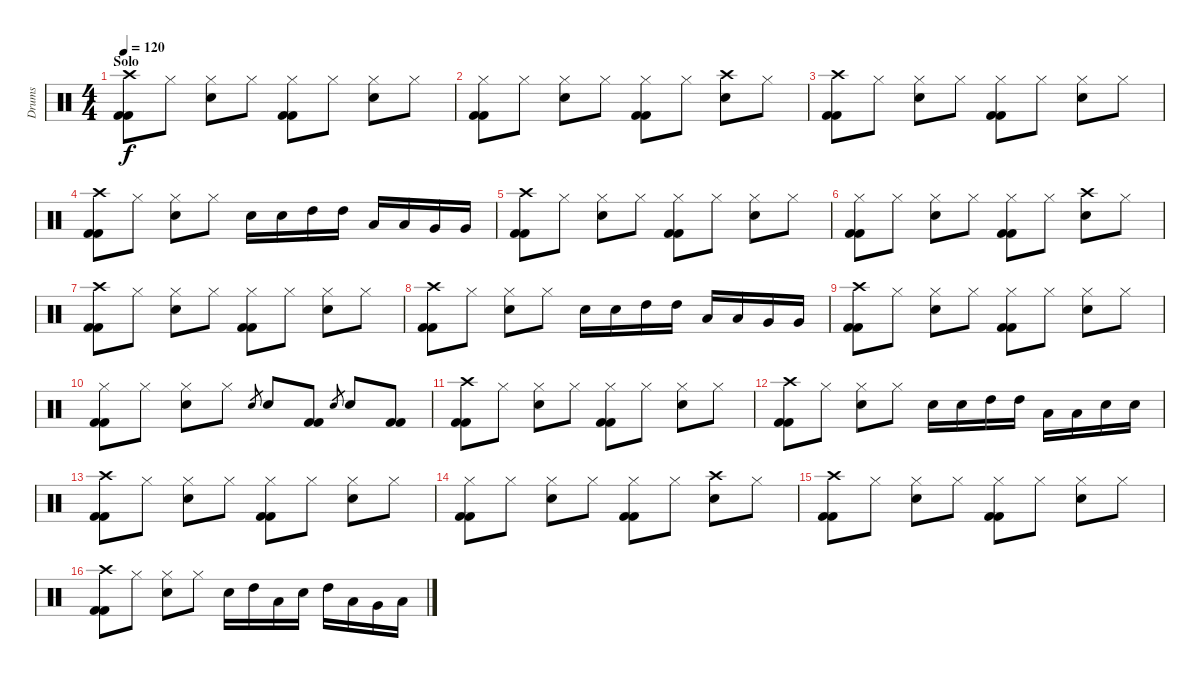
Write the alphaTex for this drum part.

\track ("Drums" "Drums") {instrument percussion}
\staff {score}
\articulation defaults
\ts (4 4)
\section ("" "Solo")
\tempo 120
\clef neutral
\ks c
("Crash high (hit)" "Kick (hit) 2" "Kick (hit) 2").8{dy f} "Hi-Hat (closed)".8 ("Electric Snare (hit)" "Hi-Hat (closed)").8 "Hi-Hat (closed)".8 ("Kick (hit) 2" "Kick (hit) 2" "Hi-Hat (closed)").8 "Hi-Hat (closed)".8 ("Hi-Hat (closed)" "Electric Snare (hit)").8 "Hi-Hat (closed)".8 |
("Hi-Hat (closed)" "Kick (hit) 2" "Kick (hit) 2").8 "Hi-Hat (closed)".8 ("Electric Snare (hit)" "Hi-Hat (closed)").8 "Hi-Hat (closed)".8 ("Kick (hit) 2" "Kick (hit) 2" "Hi-Hat (closed)").8 "Hi-Hat (closed)".8 ("Crash high (hit)" "Electric Snare (hit)").8 "Hi-Hat (closed)".8 |
("Crash high (hit)" "Kick (hit) 2" "Kick (hit) 2").8 "Hi-Hat (closed)".8 ("Electric Snare (hit)" "Hi-Hat (closed)").8 "Hi-Hat (closed)".8 ("Kick (hit) 2" "Kick (hit) 2" "Hi-Hat (closed)").8 "Hi-Hat (closed)".8 ("Hi-Hat (closed)" "Electric Snare (hit)").8 "Hi-Hat (closed)".8 |
("Crash high (hit)" "Kick (hit) 2" "Kick (hit) 2").8 "Hi-Hat (closed)".8 ("Electric Snare (hit)" "Hi-Hat (closed)").8 "Hi-Hat (closed)".8 "Electric Snare (hit)".16 "Electric Snare (hit)".16 "High Tom (hit)".16 "High Tom (hit)".16 "Low Tom (hit)".16 "Low Tom (hit)".16 "Very Low Tom (hit)".16 "Very Low Tom (hit)".16 |
("Crash high (hit)" "Kick (hit) 2" "Kick (hit) 2").8 "Hi-Hat (closed)".8 ("Electric Snare (hit)" "Hi-Hat (closed)").8 "Hi-Hat (closed)".8 ("Kick (hit) 2" "Kick (hit) 2" "Hi-Hat (closed)").8 "Hi-Hat (closed)".8 ("Hi-Hat (closed)" "Electric Snare (hit)").8 "Hi-Hat (closed)".8 |
("Hi-Hat (closed)" "Kick (hit) 2" "Kick (hit) 2").8 "Hi-Hat (closed)".8 ("Electric Snare (hit)" "Hi-Hat (closed)").8 "Hi-Hat (closed)".8 ("Kick (hit) 2" "Kick (hit) 2" "Hi-Hat (closed)").8 "Hi-Hat (closed)".8 ("Crash high (hit)" "Electric Snare (hit)").8 "Hi-Hat (closed)".8 |
("Crash high (hit)" "Kick (hit) 2" "Kick (hit) 2").8 "Hi-Hat (closed)".8 ("Electric Snare (hit)" "Hi-Hat (closed)").8 "Hi-Hat (closed)".8 ("Kick (hit) 2" "Kick (hit) 2" "Hi-Hat (closed)").8 "Hi-Hat (closed)".8 ("Hi-Hat (closed)" "Electric Snare (hit)").8 "Hi-Hat (closed)".8 |
("Crash high (hit)" "Kick (hit) 2" "Kick (hit) 2").8 "Hi-Hat (closed)".8 ("Electric Snare (hit)" "Hi-Hat (closed)").8 "Hi-Hat (closed)".8 "Electric Snare (hit)".16 "Electric Snare (hit)".16 "High Tom (hit)".16 "High Tom (hit)".16 "Low Tom (hit)".16 "Low Tom (hit)".16 "Very Low Tom (hit)".16 "Very Low Tom (hit)".16 |
("Crash high (hit)" "Kick (hit) 2" "Kick (hit) 2").8 "Hi-Hat (closed)".8 ("Electric Snare (hit)" "Hi-Hat (closed)").8 "Hi-Hat (closed)".8 ("Kick (hit) 2" "Kick (hit) 2" "Hi-Hat (closed)").8 "Hi-Hat (closed)".8 ("Hi-Hat (closed)" "Electric Snare (hit)").8 "Hi-Hat (closed)".8 |
("Hi-Hat (closed)" "Kick (hit) 2" "Kick (hit) 2").8 "Hi-Hat (closed)".8 ("Electric Snare (hit)" "Hi-Hat (closed)").8 "Hi-Hat (closed)".8 "Electric Snare (hit)".8{gr} "Electric Snare (hit)".8 ("Kick (hit) 2" "Kick (hit) 2").8 "Electric Snare (hit)".8{gr} "Electric Snare (hit)".8 ("Kick (hit) 2" "Kick (hit) 2").8 |
("Crash high (hit)" "Kick (hit) 2" "Kick (hit) 2").8 "Hi-Hat (closed)".8 ("Electric Snare (hit)" "Hi-Hat (closed)").8 "Hi-Hat (closed)".8 ("Kick (hit) 2" "Kick (hit) 2" "Hi-Hat (closed)").8 "Hi-Hat (closed)".8 ("Hi-Hat (closed)" "Electric Snare (hit)").8 "Hi-Hat (closed)".8 |
("Crash high (hit)" "Kick (hit) 2" "Kick (hit) 2").8 "Hi-Hat (closed)".8 ("Electric Snare (hit)" "Hi-Hat (closed)").8 "Hi-Hat (closed)".8 "Electric Snare (hit)".16 "Electric Snare (hit)".16 "High Tom (hit)".16 "High Tom (hit)".16 "Low Tom (hit)".16 "Low Tom (hit)".16 "Electric Snare (hit)".16 "Electric Snare (hit)".16 |
("Crash high (hit)" "Kick (hit) 2" "Kick (hit) 2").8 "Hi-Hat (closed)".8 ("Electric Snare (hit)" "Hi-Hat (closed)").8 "Hi-Hat (closed)".8 ("Kick (hit) 2" "Kick (hit) 2" "Hi-Hat (closed)").8 "Hi-Hat (closed)".8 ("Hi-Hat (closed)" "Electric Snare (hit)").8 "Hi-Hat (closed)".8 |
("Hi-Hat (closed)" "Kick (hit) 2" "Kick (hit) 2").8 "Hi-Hat (closed)".8 ("Electric Snare (hit)" "Hi-Hat (closed)").8 "Hi-Hat (closed)".8 ("Kick (hit) 2" "Kick (hit) 2" "Hi-Hat (closed)").8 "Hi-Hat (closed)".8 ("Crash high (hit)" "Electric Snare (hit)").8 "Hi-Hat (closed)".8 |
("Crash high (hit)" "Kick (hit) 2" "Kick (hit) 2").8 "Hi-Hat (closed)".8 ("Electric Snare (hit)" "Hi-Hat (closed)").8 "Hi-Hat (closed)".8 ("Kick (hit) 2" "Kick (hit) 2" "Hi-Hat (closed)").8 "Hi-Hat (closed)".8 ("Hi-Hat (closed)" "Electric Snare (hit)").8 "Hi-Hat (closed)".8 |
("Crash high (hit)" "Kick (hit) 2" "Kick (hit) 2").8 "Hi-Hat (closed)".8 ("Electric Snare (hit)" "Hi-Hat (closed)").8 "Hi-Hat (closed)".8 "Electric Snare (hit)".16 "High Tom (hit)".16 "Low Tom (hit)".16 "Electric Snare (hit)".16 "High Tom (hit)".16 "Low Tom (hit)".16 "Very Low Tom (hit)".16 "Low Floor Tom (hit)".16
